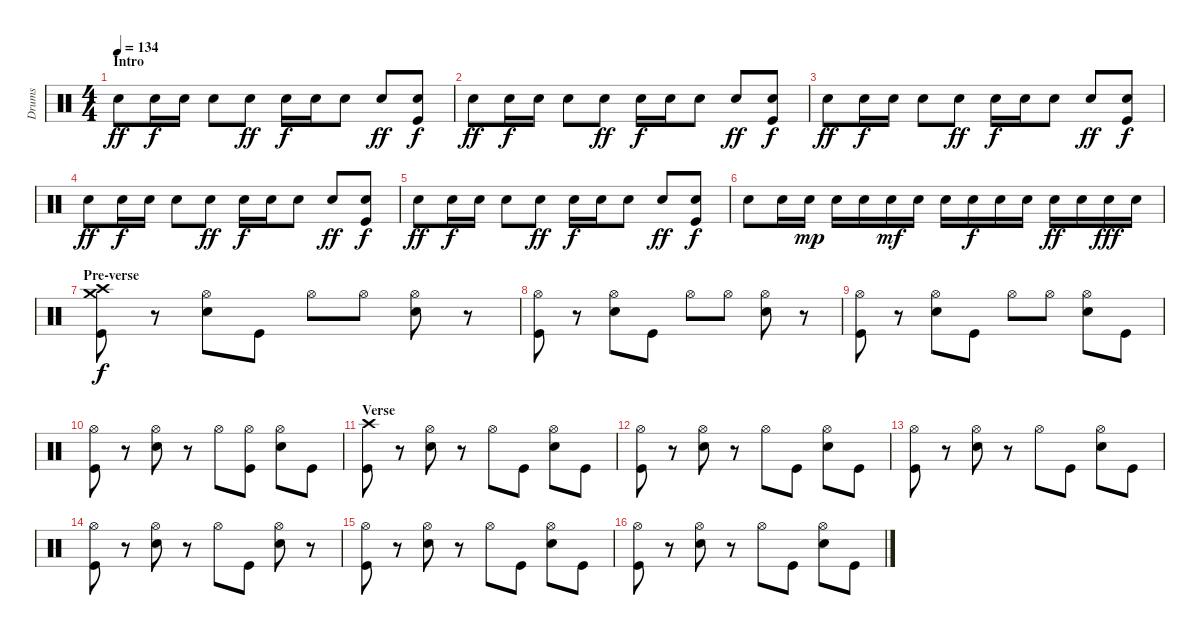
\track ("Drums" "Drums") {instrument percussion}
\staff {score}
\articulation defaults
\ts (4 4)
\section ("" "Intro")
\tempo 134
\clef neutral
\ks c "Electric Snare (hit)".8{dy ff} "Electric Snare (hit)".16{dy f} "Electric Snare (hit)".16 "Electric Snare (hit)".8 "Electric Snare (hit)".8{dy ff} "Electric Snare (hit)".16{dy f} "Electric Snare (hit)".16 "Electric Snare (hit)".8 "Electric Snare (hit)".8{dy ff}
("Electric Snare (hit)" "Kick (hit)").8{dy f} |
"Electric Snare (hit)".8{dy ff} "Electric Snare (hit)".16{dy f} "Electric Snare (hit)".16 "Electric Snare (hit)".8 "Electric Snare (hit)".8{dy ff} "Electric Snare (hit)".16{dy f} "Electric Snare (hit)".16 "Electric Snare (hit)".8 "Electric Snare (hit)".8{dy ff} ("Electric Snare (hit)" "Kick (hit)").8{dy f} |
"Electric Snare (hit)".8{dy ff} "Electric Snare (hit)".16{dy f} "Electric Snare (hit)".16 "Electric Snare (hit)".8 "Electric Snare (hit)".8{dy ff} "Electric Snare (hit)".16{dy f} "Electric Snare (hit)".16 "Electric Snare (hit)".8 "Electric Snare (hit)".8{dy ff} ("Electric Snare (hit)" "Kick (hit)").8{dy f} |
"Electric Snare (hit)".8{dy ff} "Electric Snare (hit)".16{dy f} "Electric Snare (hit)".16 "Electric Snare (hit)".8 "Electric Snare (hit)".8{dy ff} "Electric Snare (hit)".16{dy f} "Electric Snare (hit)".16 "Electric Snare (hit)".8 "Electric Snare (hit)".8{dy ff} ("Electric Snare (hit)" "Kick (hit)").8{dy f} |
"Electric Snare (hit)".8{dy ff} "Electric Snare (hit)".16{dy f} "Electric Snare (hit)".16 "Electric Snare (hit)".8 "Electric Snare (hit)".8{dy ff} "Electric Snare (hit)".16{dy f} "Electric Snare (hit)".16 "Electric Snare (hit)".8 "Electric Snare (hit)".8{dy ff} ("Electric Snare (hit)" "Kick (hit)").8{dy f} |
"Electric Snare (hit)".8 "Electric Snare (hit)".16 "Electric Snare (hit)".16{dy mp} "Electric Snare (hit)".16 "Electric Snare (hit)".16 "Electric Snare (hit)".16{dy mf} "Electric Snare (hit)".16 "Electric Snare (hit)".16 "Electric Snare (hit)".16{dy f} "Electric Snare (hit)".16 "Electric Snare (hit)".16 "Electric Snare (hit)".16{dy ff} "Electric Snare (hit)".16 "Electric Snare (hit)".16{dy fff} "Electric Snare (hit)".16 |
\section ("" "Pre-verse")
("Crash high (hit)" "Crash medium (hit)" "Kick (hit)").8{dy f} r.8 ("Hi-Hat (open)" "Electric Snare (hit)").8 "Kick (hit)".8 "Hi-Hat (open)".8 "Hi-Hat (open)".8 ("Hi-Hat (open)" "Electric Snare (hit)").8 r.8 |
("Hi-Hat (open)" "Kick (hit)").8 r.8 ("Hi-Hat (open)" "Electric Snare (hit)").8 "Kick (hit)".8 "Hi-Hat (open)".8 "Hi-Hat (open)".8 ("Hi-Hat (open)" "Electric Snare (hit)").8 r.8 |
("Hi-Hat (open)" "Kick (hit)").8 r.8 ("Hi-Hat (open)" "Electric Snare (hit)").8 "Kick (hit)".8 "Hi-Hat (open)".8 "Hi-Hat (open)".8 ("Hi-Hat (open)" "Electric Snare (hit)").8 "Kick (hit)".8 |
("Hi-Hat (open)" "Kick (hit)").8 r.8 ("Hi-Hat (open)" "Electric Snare (hit)").8 r.8 "Hi-Hat (open)".8 ("Hi-Hat (open)" "Kick (hit)").8 ("Hi-Hat (open)" "Electric Snare (hit)").8 "Kick (hit)".8 |
\section ("" "Verse")
("Crash high (hit)" "Kick (hit)").8 r.8 ("Hi-Hat (open)" "Electric Snare (hit)").8 r.8 "Hi-Hat (open)".8 "Kick (hit)".8 ("Hi-Hat (open)" "Electric Snare (hit)").8 "Kick (hit)".8 |
("Hi-Hat (open)" "Kick (hit)").8 r.8 ("Hi-Hat (open)" "Electric Snare (hit)").8 r.8 "Hi-Hat (open)".8 "Kick (hit)".8 ("Hi-Hat (open)" "Electric Snare (hit)").8 "Kick (hit)".8 |
("Hi-Hat (open)" "Kick (hit)").8 r.8 ("Hi-Hat (open)" "Electric Snare (hit)").8 r.8 "Hi-Hat (open)".8 "Kick (hit)".8 ("Hi-Hat (open)" "Electric Snare (hit)").8 "Kick (hit)".8 |
("Hi-Hat (open)" "Kick (hit)").8 r.8 ("Hi-Hat (open)" "Electric Snare (hit)").8 r.8 "Hi-Hat (open)".8 "Kick (hit)".8 ("Hi-Hat (open)" "Electric Snare (hit)").8 r.8 |
("Hi-Hat (open)" "Kick (hit)").8 r.8 ("Hi-Hat (open)" "Electric Snare (hit)").8 r.8 "Hi-Hat (open)".8 "Kick (hit)".8 ("Hi-Hat (open)" "Electric Snare (hit)").8 "Kick (hit)".8 |
("Hi-Hat (open)" "Kick (hit)").8 r.8 ("Hi-Hat (open)" "Electric Snare (hit)").8 r.8 "Hi-Hat (open)".8 "Kick (hit)".8 ("Hi-Hat (open)" "Electric Snare (hit)").8 "Kick (hit)".8
